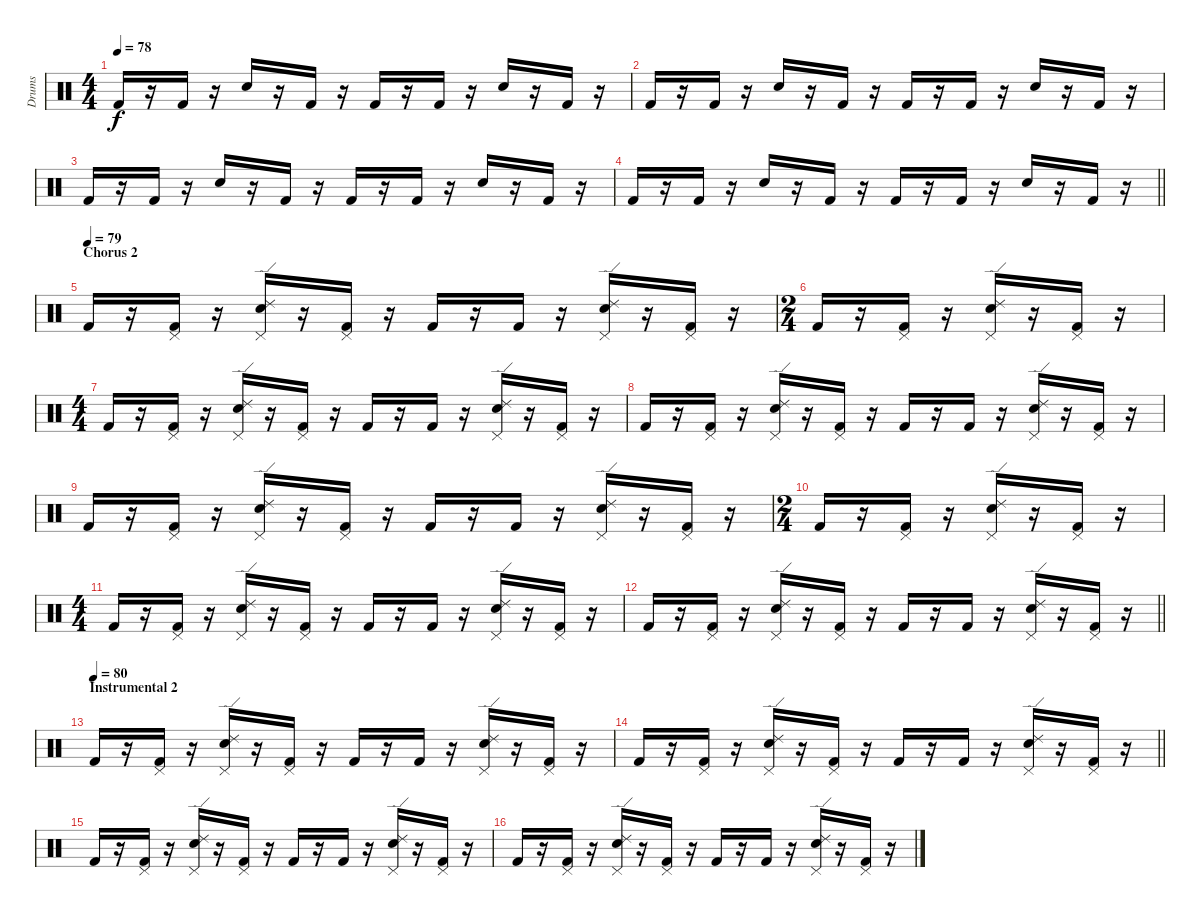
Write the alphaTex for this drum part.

\track ("Drums" "Drums") {instrument percussion}
\staff {score}
\articulation defaults
\ts (4 4)
\tempo 78
\clef neutral
\ks c "Kick (hit) 2".16{dy f}
r.16 "Kick (hit) 2".16 r.16 "Snare (hit) 2".16 r.16 "Kick (hit) 2".16 r.16 "Kick (hit) 2".16 r.16 "Kick (hit) 2".16 r.16 "Snare (hit) 2".16 r.16 "Kick (hit) 2".16 r.16 |
"Kick (hit) 2".16 r.16 "Kick (hit) 2".16 r.16 "Snare (hit) 2".16 r.16 "Kick (hit) 2".16 r.16 "Kick (hit) 2".16 r.16 "Kick (hit) 2".16 r.16 "Snare (hit) 2".16 r.16 "Kick (hit) 2".16 r.16 |
"Kick (hit) 2".16 r.16 "Kick (hit) 2".16 r.16 "Snare (hit) 2".16 r.16 "Kick (hit) 2".16 r.16 "Kick (hit) 2".16 r.16 "Kick (hit) 2".16 r.16 "Snare (hit) 2".16 r.16 "Kick (hit) 2".16 r.16 |
\barLineRight lightlight "Kick (hit) 2".16
r.16 "Kick (hit) 2".16 r.16 "Snare (hit) 2".16 r.16 "Kick (hit) 2".16 r.16 "Kick (hit) 2".16 r.16 "Kick (hit) 2".16 r.16 "Snare (hit) 2".16 r.16 "Kick (hit) 2".16 r.16 |
\section ("" "Chorus 2")
\tempo (79)
"Kick (hit) 2".16 r.16 ("Pedal Hi-Hat (hit)" "Kick (hit) 2").16 r.16 ("Ride (edge) 2" "Pedal Hi-Hat (hit)" "Snare (hit) 2").16 r.16 ("Pedal Hi-Hat (hit)" "Kick (hit) 2").16 r.16 "Kick (hit) 2".16 r.16 "Kick (hit) 2".16 r.16 ("Ride (edge) 2" "Pedal Hi-Hat (hit)" "Snare (hit) 2").16 r.16 ("Pedal Hi-Hat (hit)" "Kick (hit) 2").16 r.16 |
\ts (2 4)
"Kick (hit) 2".16 r.16 ("Pedal Hi-Hat (hit)" "Kick (hit) 2").16 r.16 ("Ride (edge) 2" "Pedal Hi-Hat (hit)" "Snare (hit) 2").16 r.16 ("Pedal Hi-Hat (hit)" "Kick (hit) 2").16 r.16 |
\ts (4 4)
"Kick (hit) 2".16 r.16 ("Pedal Hi-Hat (hit)" "Kick (hit) 2").16 r.16 ("Ride (edge) 2" "Pedal Hi-Hat (hit)" "Snare (hit) 2").16 r.16 ("Pedal Hi-Hat (hit)" "Kick (hit) 2").16 r.16 "Kick (hit) 2".16 r.16 "Kick (hit) 2".16 r.16 ("Ride (edge) 2" "Pedal Hi-Hat (hit)" "Snare (hit) 2").16 r.16 ("Pedal Hi-Hat (hit)" "Kick (hit) 2").16 r.16 |
"Kick (hit) 2".16 r.16 ("Pedal Hi-Hat (hit)" "Kick (hit) 2").16 r.16 ("Ride (edge) 2" "Pedal Hi-Hat (hit)" "Snare (hit) 2").16 r.16 ("Pedal Hi-Hat (hit)" "Kick (hit) 2").16 r.16 "Kick (hit) 2".16 r.16 "Kick (hit) 2".16 r.16 ("Ride (edge) 2" "Pedal Hi-Hat (hit)" "Snare (hit) 2").16 r.16 ("Pedal Hi-Hat (hit)" "Kick (hit) 2").16 r.16 |
"Kick (hit) 2".16 r.16 ("Pedal Hi-Hat (hit)" "Kick (hit) 2").16 r.16 ("Ride (edge) 2" "Pedal Hi-Hat (hit)" "Snare (hit) 2").16 r.16 ("Pedal Hi-Hat (hit)" "Kick (hit) 2").16 r.16 "Kick (hit) 2".16 r.16 "Kick (hit) 2".16 r.16 ("Ride (edge) 2" "Pedal Hi-Hat (hit)" "Snare (hit) 2").16 r.16 ("Pedal Hi-Hat (hit)" "Kick (hit) 2").16 r.16 |
\ts (2 4)
"Kick (hit) 2".16 r.16 ("Pedal Hi-Hat (hit)" "Kick (hit) 2").16 r.16 ("Ride (edge) 2" "Pedal Hi-Hat (hit)" "Snare (hit) 2").16 r.16 ("Pedal Hi-Hat (hit)" "Kick (hit) 2").16 r.16 |
\ts (4 4)
"Kick (hit) 2".16 r.16 ("Pedal Hi-Hat (hit)" "Kick (hit) 2").16 r.16 ("Ride (edge) 2" "Pedal Hi-Hat (hit)" "Snare (hit) 2").16 r.16 ("Pedal Hi-Hat (hit)" "Kick (hit) 2").16 r.16 "Kick (hit) 2".16 r.16 "Kick (hit) 2".16 r.16 ("Ride (edge) 2" "Pedal Hi-Hat (hit)" "Snare (hit) 2").16 r.16 ("Pedal Hi-Hat (hit)" "Kick (hit) 2").16 r.16 |
\barLineRight lightlight "Kick (hit) 2".16
r.16 ("Pedal Hi-Hat (hit)" "Kick (hit) 2").16 r.16 ("Ride (edge) 2" "Pedal Hi-Hat (hit)" "Snare (hit) 2").16 r.16 ("Pedal Hi-Hat (hit)" "Kick (hit) 2").16 r.16 "Kick (hit) 2".16 r.16 "Kick (hit) 2".16 r.16 ("Ride (edge) 2" "Pedal Hi-Hat (hit)" "Snare (hit) 2").16 r.16 ("Pedal Hi-Hat (hit)" "Kick (hit) 2").16 r.16 |
\section ("" "Instrumental 2")
\tempo (80)
"Kick (hit) 2".16 r.16 ("Pedal Hi-Hat (hit)" "Kick (hit) 2").16 r.16 ("Ride (edge) 2" "Pedal Hi-Hat (hit)" "Snare (hit) 2").16 r.16 ("Pedal Hi-Hat (hit)" "Kick (hit) 2").16 r.16 "Kick (hit) 2".16 r.16 "Kick (hit) 2".16 r.16 ("Ride (edge) 2" "Pedal Hi-Hat (hit)" "Snare (hit) 2").16 r.16 ("Pedal Hi-Hat (hit)" "Kick (hit) 2").16 r.16 |
\barLineRight lightlight "Kick (hit) 2".16
r.16 ("Pedal Hi-Hat (hit)" "Kick (hit) 2").16 r.16 ("Ride (edge) 2" "Pedal Hi-Hat (hit)" "Snare (hit) 2").16 r.16 ("Pedal Hi-Hat (hit)" "Kick (hit) 2").16 r.16 "Kick (hit) 2".16 r.16 "Kick (hit) 2".16 r.16 ("Ride (edge) 2" "Pedal Hi-Hat (hit)" "Snare (hit) 2").16 r.16 ("Pedal Hi-Hat (hit)" "Kick (hit) 2").16 r.16 |
"Kick (hit) 2".16 r.16 ("Pedal Hi-Hat (hit)" "Kick (hit) 2").16 r.16 ("Ride (edge) 2" "Pedal Hi-Hat (hit)" "Snare (hit) 2").16 r.16 ("Pedal Hi-Hat (hit)" "Kick (hit) 2").16 r.16 "Kick (hit) 2".16 r.16 "Kick (hit) 2".16 r.16 ("Ride (edge) 2" "Pedal Hi-Hat (hit)" "Snare (hit) 2").16 r.16 ("Pedal Hi-Hat (hit)" "Kick (hit) 2").16 r.16 |
"Kick (hit) 2".16 r.16 ("Pedal Hi-Hat (hit)" "Kick (hit) 2").16 r.16 ("Ride (edge) 2" "Pedal Hi-Hat (hit)" "Snare (hit) 2").16 r.16 ("Pedal Hi-Hat (hit)" "Kick (hit) 2").16 r.16 "Kick (hit) 2".16 r.16 "Kick (hit) 2".16 r.16 ("Ride (edge) 2" "Pedal Hi-Hat (hit)" "Snare (hit) 2").16 r.16 ("Pedal Hi-Hat (hit)" "Kick (hit) 2").16 r.16
